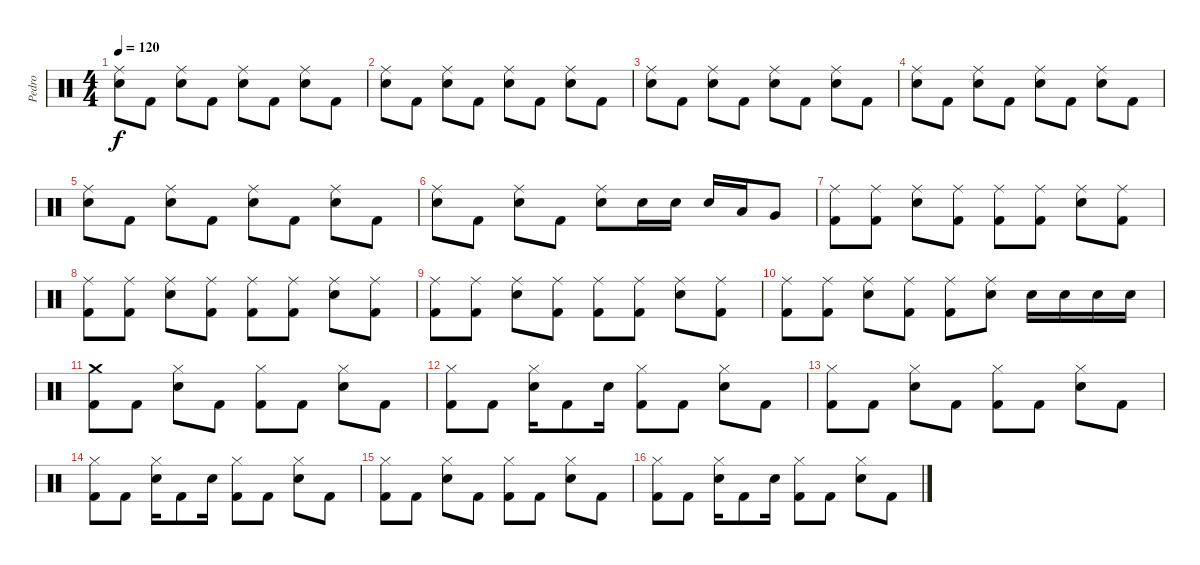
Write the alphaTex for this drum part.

\track ("Pedro" "Pedro") {instrument percussion}
\staff {score}
\articulation defaults
\ts (4 4)
\tempo 120
\clef neutral
\ks c
("Ride (middle)" "Snare (hit) 2").8{dy f} "Kick (hit) 2".8 ("Ride (middle)" "Snare (hit) 2").8 "Kick (hit) 2".8 ("Ride (middle)" "Snare (hit) 2").8 "Kick (hit) 2".8 ("Ride (middle)" "Snare (hit) 2").8 "Kick (hit) 2".8 |
("Ride (middle)" "Snare (hit) 2").8 "Kick (hit) 2".8 ("Ride (middle)" "Snare (hit) 2").8 "Kick (hit) 2".8 ("Ride (middle)" "Snare (hit) 2").8 "Kick (hit) 2".8 ("Ride (middle)" "Snare (hit) 2").8 "Kick (hit) 2".8 |
("Ride (middle)" "Snare (hit) 2").8 "Kick (hit) 2".8 ("Ride (middle)" "Snare (hit) 2").8 "Kick (hit) 2".8 ("Ride (middle)" "Snare (hit) 2").8 "Kick (hit) 2".8 ("Ride (middle)" "Snare (hit) 2").8 "Kick (hit) 2".8 |
("Ride (middle)" "Snare (hit) 2").8 "Kick (hit) 2".8 ("Ride (middle)" "Snare (hit) 2").8 "Kick (hit) 2".8 ("Ride (middle)" "Snare (hit) 2").8 "Kick (hit) 2".8 ("Ride (middle)" "Snare (hit) 2").8 "Kick (hit) 2".8 |
("Ride (middle)" "Snare (hit) 2").8 "Kick (hit) 2".8 ("Ride (middle)" "Snare (hit) 2").8 "Kick (hit) 2".8 ("Ride (middle)" "Snare (hit) 2").8 "Kick (hit) 2".8 ("Ride (middle)" "Snare (hit) 2").8 "Kick (hit) 2".8 |
("Ride (middle)" "Snare (hit) 2").8 "Kick (hit) 2".8 ("Ride (middle)" "Snare (hit) 2").8 "Kick (hit) 2".8 ("Ride (middle)" "Snare (hit) 2").8 "Snare (hit) 2".16 "Snare (hit) 2".16 "Snare (hit) 2".16 "Low Tom (hit)".16 "Very Low Tom (hit)".8 |
("Ride (middle)" "Kick (hit) 2").8 ("Ride (middle)" "Kick (hit) 2").8 ("Ride (middle)" "Snare (hit) 2").8 ("Ride (middle)" "Kick (hit) 2").8 ("Ride (middle)" "Kick (hit) 2").8 ("Ride (middle)" "Kick (hit) 2").8 ("Ride (middle)" "Snare (hit) 2").8 ("Ride (middle)" "Kick (hit) 2").8 |
("Ride (middle)" "Kick (hit) 2").8 ("Ride (middle)" "Kick (hit) 2").8 ("Ride (middle)" "Snare (hit) 2").8 ("Ride (middle)" "Kick (hit) 2").8 ("Ride (middle)" "Kick (hit) 2").8 ("Ride (middle)" "Kick (hit) 2").8 ("Ride (middle)" "Snare (hit) 2").8 ("Ride (middle)" "Kick (hit) 2").8 |
("Ride (middle)" "Kick (hit) 2").8 ("Ride (middle)" "Kick (hit) 2").8 ("Ride (middle)" "Snare (hit) 2").8 ("Ride (middle)" "Kick (hit) 2").8 ("Ride (middle)" "Kick (hit) 2").8 ("Ride (middle)" "Kick (hit) 2").8 ("Ride (middle)" "Snare (hit) 2").8 ("Ride (middle)" "Kick (hit) 2").8 |
("Ride (middle)" "Kick (hit) 2").8 ("Ride (middle)" "Kick (hit) 2").8 ("Ride (middle)" "Snare (hit) 2").8 ("Ride (middle)" "Kick (hit) 2").8 ("Ride (middle)" "Kick (hit) 2").8 ("Ride (middle)" "Snare (hit) 2").8 "Snare (hit) 2".16 "Snare (hit) 2".16 "Snare (hit) 2".16 "Snare (hit) 2".16 |
("Crash medium (hit)" "Kick (hit) 2").8 "Kick (hit) 2".8 ("Hi-Hat (closed)" "Snare (hit) 2").8 "Kick (hit) 2".8 ("Hi-Hat (closed)" "Kick (hit) 2").8 "Kick (hit) 2".8 ("Hi-Hat (closed)" "Snare (hit) 2").8 "Kick (hit) 2".8 |
("Hi-Hat (closed)" "Kick (hit) 2").8 "Kick (hit) 2".8 ("Hi-Hat (closed)" "Snare (hit) 2").16 "Kick (hit) 2".8 "Snare (hit) 2".16 ("Hi-Hat (closed)" "Kick (hit) 2").8 "Kick (hit) 2".8 ("Hi-Hat (closed)" "Snare (hit) 2").8 "Kick (hit) 2".8 |
("Hi-Hat (closed)" "Kick (hit) 2").8 "Kick (hit) 2".8 ("Hi-Hat (closed)" "Snare (hit) 2").8 "Kick (hit) 2".8 ("Hi-Hat (closed)" "Kick (hit) 2").8 "Kick (hit) 2".8 ("Hi-Hat (closed)" "Snare (hit) 2").8 "Kick (hit) 2".8 |
("Hi-Hat (closed)" "Kick (hit) 2").8 "Kick (hit) 2".8 ("Hi-Hat (closed)" "Snare (hit) 2").16 "Kick (hit) 2".8 "Snare (hit) 2".16 ("Hi-Hat (closed)" "Kick (hit) 2").8 "Kick (hit) 2".8 ("Hi-Hat (closed)" "Snare (hit) 2").8 "Kick (hit) 2".8 |
("Hi-Hat (closed)" "Kick (hit) 2").8 "Kick (hit) 2".8 ("Hi-Hat (closed)" "Snare (hit) 2").8 "Kick (hit) 2".8 ("Hi-Hat (closed)" "Kick (hit) 2").8 "Kick (hit) 2".8 ("Hi-Hat (closed)" "Snare (hit) 2").8 "Kick (hit) 2".8 |
("Hi-Hat (closed)" "Kick (hit) 2").8 "Kick (hit) 2".8 ("Hi-Hat (closed)" "Snare (hit) 2").16 "Kick (hit) 2".8 "Snare (hit) 2".16 ("Hi-Hat (closed)" "Kick (hit) 2").8 "Kick (hit) 2".8 ("Hi-Hat (closed)" "Snare (hit) 2").8 "Kick (hit) 2".8
